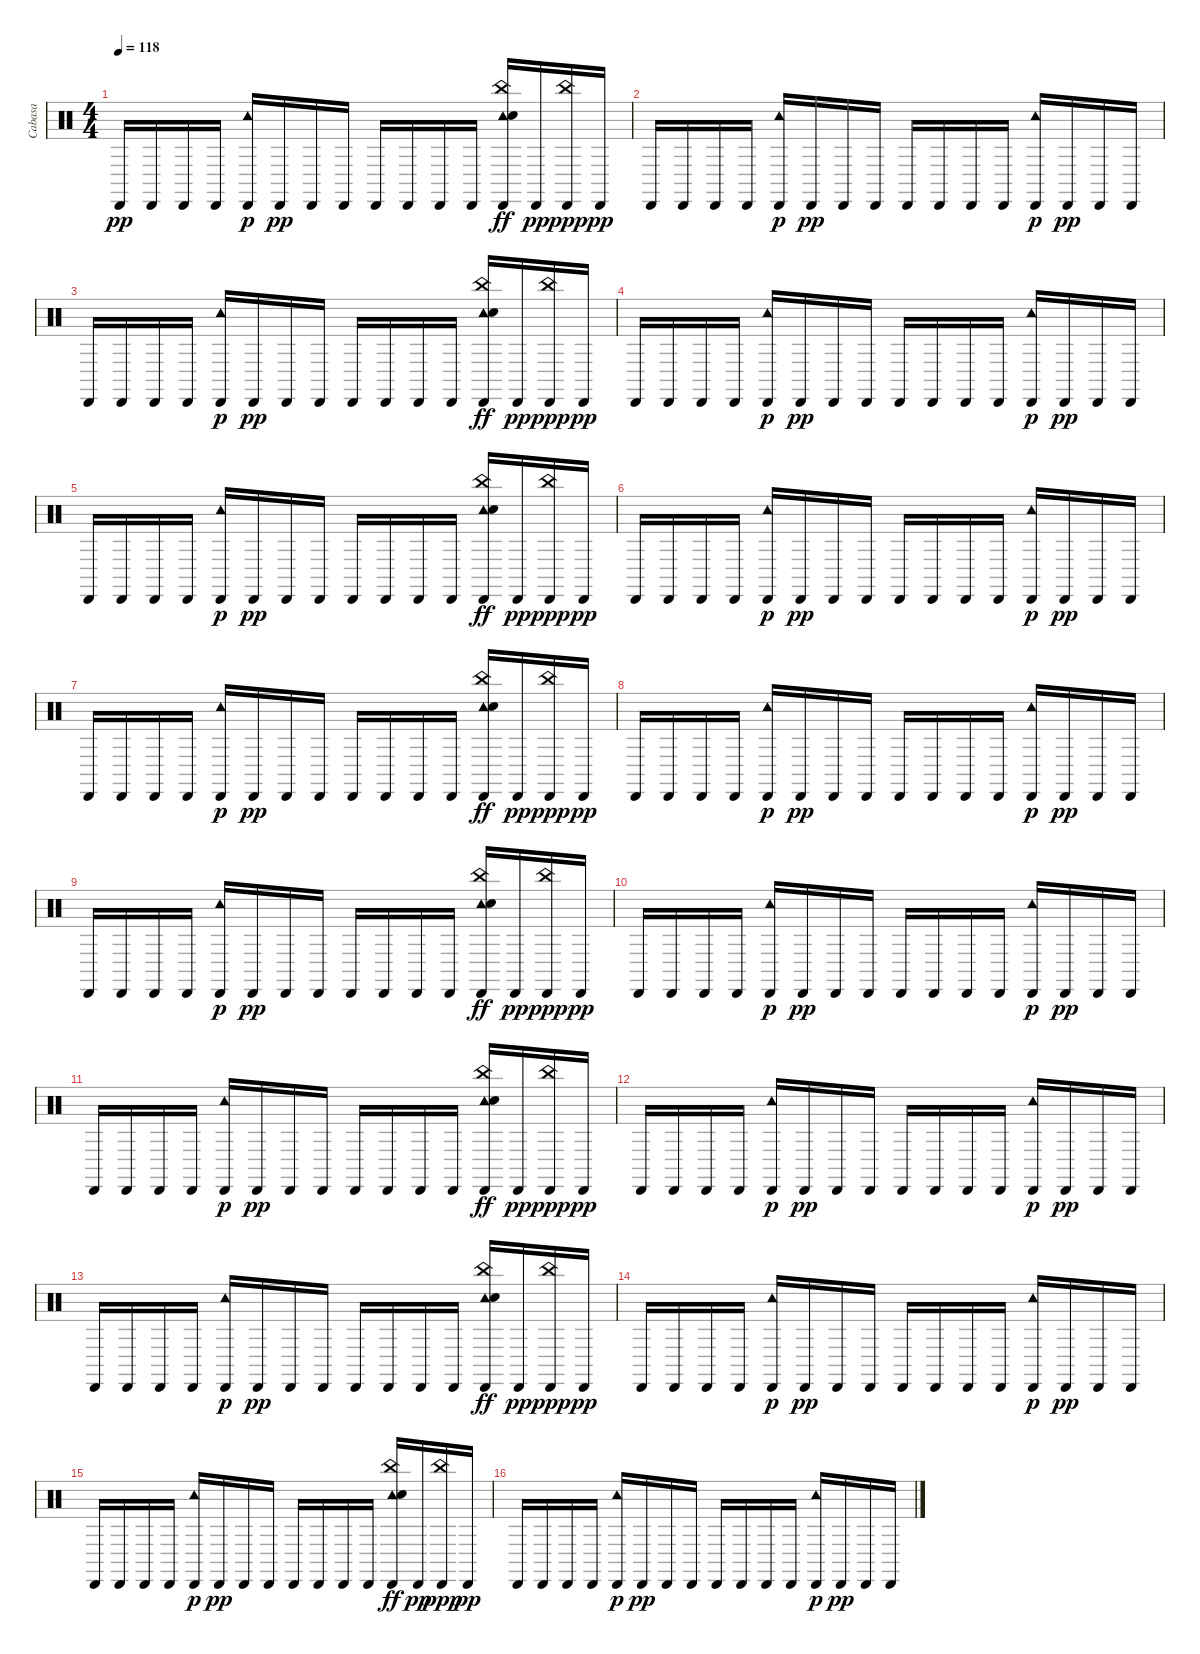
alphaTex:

\track ("Cabasa" "Cabasa") {instrument percussion}
\staff {score}
\articulation defaults
\ts (4 4)
\tempo 118
\clef neutral
\ks c "Cabasa (hit)".16{dy pp} "Cabasa (hit)".16 "Cabasa (hit)".16 "Cabasa (hit)".16
("Cabasa (hit)" "Tambourine (hit)").16{dy p} "Cabasa (hit)".16{dy pp} "Cabasa (hit)".16 "Cabasa (hit)".16 "Cabasa (hit)".16 "Cabasa (hit)".16 "Cabasa (hit)".16 "Cabasa (hit)".16 ("Cabasa (hit)" "Tambourine (hit)" "Hand Clap (hit)" "China (hit)").16{dy ff} "Cabasa (hit)".16{dy pp} ("Cabasa (hit)" "China (hit)").16{dy ppp} "Cabasa (hit)".16{dy pp} |
"Cabasa (hit)".16 "Cabasa (hit)".16 "Cabasa (hit)".16 "Cabasa (hit)".16 ("Cabasa (hit)" "Tambourine (hit)").16{dy p} "Cabasa (hit)".16{dy pp} "Cabasa (hit)".16 "Cabasa (hit)".16 "Cabasa (hit)".16 "Cabasa (hit)".16 "Cabasa (hit)".16 "Cabasa (hit)".16 ("Cabasa (hit)" "Tambourine (hit)").16{dy p} "Cabasa (hit)".16{dy pp} "Cabasa (hit)".16 "Cabasa (hit)".16 |
"Cabasa (hit)".16 "Cabasa (hit)".16 "Cabasa (hit)".16 "Cabasa (hit)".16 ("Cabasa (hit)" "Tambourine (hit)").16{dy p} "Cabasa (hit)".16{dy pp} "Cabasa (hit)".16 "Cabasa (hit)".16 "Cabasa (hit)".16 "Cabasa (hit)".16 "Cabasa (hit)".16 "Cabasa (hit)".16 ("Cabasa (hit)" "Tambourine (hit)" "Hand Clap (hit)" "China (hit)").16{dy ff} "Cabasa (hit)".16{dy pp} ("Cabasa (hit)" "China (hit)").16{dy ppp} "Cabasa (hit)".16{dy pp} |
"Cabasa (hit)".16 "Cabasa (hit)".16 "Cabasa (hit)".16 "Cabasa (hit)".16 ("Cabasa (hit)" "Tambourine (hit)").16{dy p} "Cabasa (hit)".16{dy pp} "Cabasa (hit)".16 "Cabasa (hit)".16 "Cabasa (hit)".16 "Cabasa (hit)".16 "Cabasa (hit)".16 "Cabasa (hit)".16 ("Cabasa (hit)" "Tambourine (hit)").16{dy p} "Cabasa (hit)".16{dy pp} "Cabasa (hit)".16 "Cabasa (hit)".16 |
"Cabasa (hit)".16 "Cabasa (hit)".16 "Cabasa (hit)".16 "Cabasa (hit)".16 ("Cabasa (hit)" "Tambourine (hit)").16{dy p} "Cabasa (hit)".16{dy pp} "Cabasa (hit)".16 "Cabasa (hit)".16 "Cabasa (hit)".16 "Cabasa (hit)".16 "Cabasa (hit)".16 "Cabasa (hit)".16 ("Cabasa (hit)" "Tambourine (hit)" "Hand Clap (hit)" "China (hit)").16{dy ff} "Cabasa (hit)".16{dy pp} ("Cabasa (hit)" "China (hit)").16{dy ppp} "Cabasa (hit)".16{dy pp} |
"Cabasa (hit)".16 "Cabasa (hit)".16 "Cabasa (hit)".16 "Cabasa (hit)".16 ("Cabasa (hit)" "Tambourine (hit)").16{dy p} "Cabasa (hit)".16{dy pp} "Cabasa (hit)".16 "Cabasa (hit)".16 "Cabasa (hit)".16 "Cabasa (hit)".16 "Cabasa (hit)".16 "Cabasa (hit)".16 ("Cabasa (hit)" "Tambourine (hit)").16{dy p} "Cabasa (hit)".16{dy pp} "Cabasa (hit)".16 "Cabasa (hit)".16 |
"Cabasa (hit)".16 "Cabasa (hit)".16 "Cabasa (hit)".16 "Cabasa (hit)".16 ("Cabasa (hit)" "Tambourine (hit)").16{dy p} "Cabasa (hit)".16{dy pp} "Cabasa (hit)".16 "Cabasa (hit)".16 "Cabasa (hit)".16 "Cabasa (hit)".16 "Cabasa (hit)".16 "Cabasa (hit)".16 ("Cabasa (hit)" "Tambourine (hit)" "Hand Clap (hit)" "China (hit)").16{dy ff} "Cabasa (hit)".16{dy pp} ("Cabasa (hit)" "China (hit)").16{dy ppp} "Cabasa (hit)".16{dy pp} |
"Cabasa (hit)".16 "Cabasa (hit)".16 "Cabasa (hit)".16 "Cabasa (hit)".16 ("Cabasa (hit)" "Tambourine (hit)").16{dy p} "Cabasa (hit)".16{dy pp} "Cabasa (hit)".16 "Cabasa (hit)".16 "Cabasa (hit)".16 "Cabasa (hit)".16 "Cabasa (hit)".16 "Cabasa (hit)".16 ("Cabasa (hit)" "Tambourine (hit)").16{dy p} "Cabasa (hit)".16{dy pp} "Cabasa (hit)".16 "Cabasa (hit)".16 |
"Cabasa (hit)".16 "Cabasa (hit)".16 "Cabasa (hit)".16 "Cabasa (hit)".16 ("Cabasa (hit)" "Tambourine (hit)").16{dy p} "Cabasa (hit)".16{dy pp} "Cabasa (hit)".16 "Cabasa (hit)".16 "Cabasa (hit)".16 "Cabasa (hit)".16 "Cabasa (hit)".16 "Cabasa (hit)".16 ("Cabasa (hit)" "Tambourine (hit)" "Hand Clap (hit)" "China (hit)").16{dy ff} "Cabasa (hit)".16{dy pp} ("Cabasa (hit)" "China (hit)").16{dy ppp} "Cabasa (hit)".16{dy pp} |
"Cabasa (hit)".16 "Cabasa (hit)".16 "Cabasa (hit)".16 "Cabasa (hit)".16 ("Cabasa (hit)" "Tambourine (hit)").16{dy p} "Cabasa (hit)".16{dy pp} "Cabasa (hit)".16 "Cabasa (hit)".16 "Cabasa (hit)".16 "Cabasa (hit)".16 "Cabasa (hit)".16 "Cabasa (hit)".16 ("Cabasa (hit)" "Tambourine (hit)").16{dy p} "Cabasa (hit)".16{dy pp} "Cabasa (hit)".16 "Cabasa (hit)".16 |
"Cabasa (hit)".16 "Cabasa (hit)".16 "Cabasa (hit)".16 "Cabasa (hit)".16 ("Cabasa (hit)" "Tambourine (hit)").16{dy p} "Cabasa (hit)".16{dy pp} "Cabasa (hit)".16 "Cabasa (hit)".16 "Cabasa (hit)".16 "Cabasa (hit)".16 "Cabasa (hit)".16 "Cabasa (hit)".16 ("Cabasa (hit)" "Tambourine (hit)" "Hand Clap (hit)" "China (hit)").16{dy ff} "Cabasa (hit)".16{dy pp} ("Cabasa (hit)" "China (hit)").16{dy ppp} "Cabasa (hit)".16{dy pp} |
"Cabasa (hit)".16 "Cabasa (hit)".16 "Cabasa (hit)".16 "Cabasa (hit)".16 ("Cabasa (hit)" "Tambourine (hit)").16{dy p} "Cabasa (hit)".16{dy pp} "Cabasa (hit)".16 "Cabasa (hit)".16 "Cabasa (hit)".16 "Cabasa (hit)".16 "Cabasa (hit)".16 "Cabasa (hit)".16 ("Cabasa (hit)" "Tambourine (hit)").16{dy p} "Cabasa (hit)".16{dy pp} "Cabasa (hit)".16 "Cabasa (hit)".16 |
"Cabasa (hit)".16 "Cabasa (hit)".16 "Cabasa (hit)".16 "Cabasa (hit)".16 ("Cabasa (hit)" "Tambourine (hit)").16{dy p} "Cabasa (hit)".16{dy pp} "Cabasa (hit)".16 "Cabasa (hit)".16 "Cabasa (hit)".16 "Cabasa (hit)".16 "Cabasa (hit)".16 "Cabasa (hit)".16 ("Cabasa (hit)" "Tambourine (hit)" "Hand Clap (hit)" "China (hit)").16{dy ff} "Cabasa (hit)".16{dy pp} ("Cabasa (hit)" "China (hit)").16{dy ppp} "Cabasa (hit)".16{dy pp} |
"Cabasa (hit)".16 "Cabasa (hit)".16 "Cabasa (hit)".16 "Cabasa (hit)".16 ("Cabasa (hit)" "Tambourine (hit)").16{dy p} "Cabasa (hit)".16{dy pp} "Cabasa (hit)".16 "Cabasa (hit)".16 "Cabasa (hit)".16 "Cabasa (hit)".16 "Cabasa (hit)".16 "Cabasa (hit)".16 ("Cabasa (hit)" "Tambourine (hit)").16{dy p} "Cabasa (hit)".16{dy pp} "Cabasa (hit)".16 "Cabasa (hit)".16 |
"Cabasa (hit)".16 "Cabasa (hit)".16 "Cabasa (hit)".16 "Cabasa (hit)".16 ("Cabasa (hit)" "Tambourine (hit)").16{dy p} "Cabasa (hit)".16{dy pp} "Cabasa (hit)".16 "Cabasa (hit)".16 "Cabasa (hit)".16 "Cabasa (hit)".16 "Cabasa (hit)".16 "Cabasa (hit)".16 ("Cabasa (hit)" "Tambourine (hit)" "Hand Clap (hit)" "China (hit)").16{dy ff} "Cabasa (hit)".16{dy pp} ("Cabasa (hit)" "China (hit)").16{dy ppp} "Cabasa (hit)".16{dy pp} |
"Cabasa (hit)".16 "Cabasa (hit)".16 "Cabasa (hit)".16 "Cabasa (hit)".16 ("Cabasa (hit)" "Tambourine (hit)").16{dy p} "Cabasa (hit)".16{dy pp} "Cabasa (hit)".16 "Cabasa (hit)".16 "Cabasa (hit)".16 "Cabasa (hit)".16 "Cabasa (hit)".16 "Cabasa (hit)".16 ("Cabasa (hit)" "Tambourine (hit)").16{dy p} "Cabasa (hit)".16{dy pp} "Cabasa (hit)".16 "Cabasa (hit)".16
